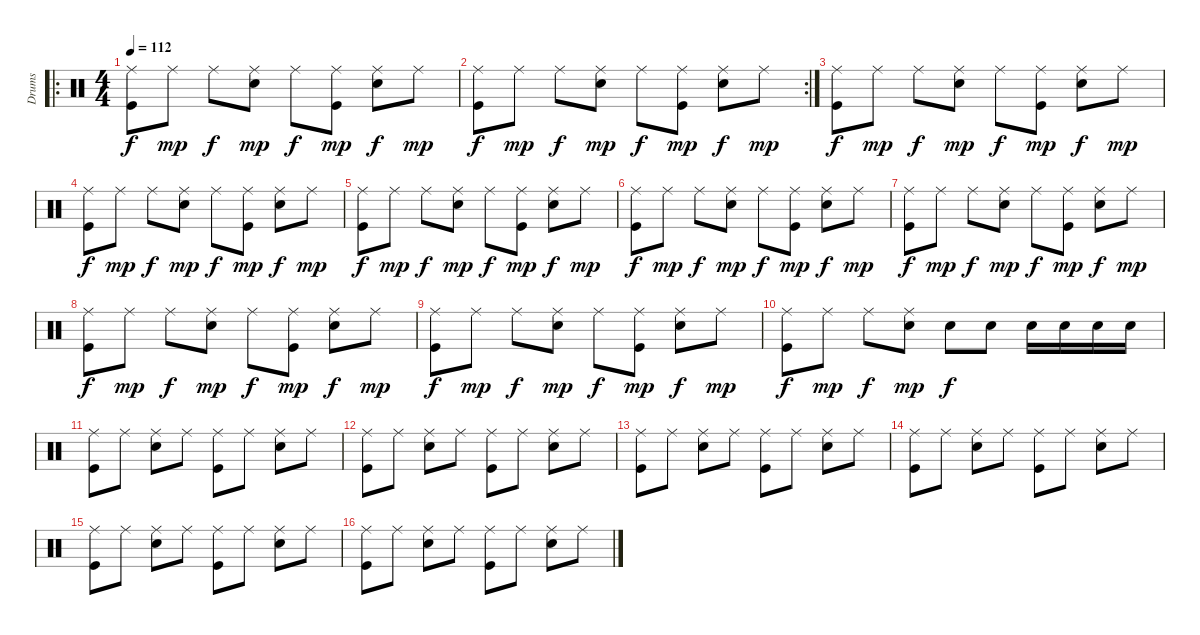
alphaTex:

\track ("Drums" "Drums") {instrument percussion}
\staff {score}
\articulation defaults
\ro
\ts (4 4)
\tempo 112
\clef neutral
\ks c
("Ride (middle)" "Kick (hit)").8{dy f} "Ride (middle)".8{dy mp} "Ride (middle)".8{dy f} ("Ride (middle)" "Snare (hit) 2").8{dy mp} "Ride (middle)".8{dy f} ("Ride (middle)" "Kick (hit)").8{dy mp} ("Ride (middle)" "Snare (hit) 2").8{dy f} "Ride (middle)".8{dy mp} |
\rc 2
("Ride (middle)" "Kick (hit)").8{dy f} "Ride (middle)".8{dy mp} "Ride (middle)".8{dy f} ("Ride (middle)" "Snare (hit) 2").8{dy mp} "Ride (middle)".8{dy f} ("Ride (middle)" "Kick (hit)").8{dy mp} ("Ride (middle)" "Snare (hit) 2").8{dy f} "Ride (middle)".8{dy mp} |
("Ride (middle)" "Kick (hit)").8{dy f} "Ride (middle)".8{dy mp} "Ride (middle)".8{dy f} ("Ride (middle)" "Snare (hit) 2").8{dy mp} "Ride (middle)".8{dy f} ("Ride (middle)" "Kick (hit)").8{dy mp} ("Ride (middle)" "Snare (hit) 2").8{dy f} "Ride (middle)".8{dy mp} |
("Ride (middle)" "Kick (hit)").8{dy f} "Ride (middle)".8{dy mp} "Ride (middle)".8{dy f} ("Ride (middle)" "Snare (hit) 2").8{dy mp} "Ride (middle)".8{dy f} ("Ride (middle)" "Kick (hit)").8{dy mp} ("Ride (middle)" "Snare (hit) 2").8{dy f} "Ride (middle)".8{dy mp} |
("Ride (middle)" "Kick (hit)").8{dy f} "Ride (middle)".8{dy mp} "Ride (middle)".8{dy f} ("Ride (middle)" "Snare (hit) 2").8{dy mp} "Ride (middle)".8{dy f} ("Ride (middle)" "Kick (hit)").8{dy mp} ("Ride (middle)" "Snare (hit) 2").8{dy f} "Ride (middle)".8{dy mp} |
("Ride (middle)" "Kick (hit)").8{dy f} "Ride (middle)".8{dy mp} "Ride (middle)".8{dy f} ("Ride (middle)" "Snare (hit) 2").8{dy mp} "Ride (middle)".8{dy f} ("Ride (middle)" "Kick (hit)").8{dy mp} ("Ride (middle)" "Snare (hit) 2").8{dy f} "Ride (middle)".8{dy mp} |
("Ride (middle)" "Kick (hit)").8{dy f} "Ride (middle)".8{dy mp} "Ride (middle)".8{dy f} ("Ride (middle)" "Snare (hit) 2").8{dy mp} "Ride (middle)".8{dy f} ("Ride (middle)" "Kick (hit)").8{dy mp} ("Ride (middle)" "Snare (hit) 2").8{dy f} "Ride (middle)".8{dy mp} |
("Ride (middle)" "Kick (hit)").8{dy f} "Ride (middle)".8{dy mp} "Ride (middle)".8{dy f} ("Ride (middle)" "Snare (hit) 2").8{dy mp} "Ride (middle)".8{dy f} ("Ride (middle)" "Kick (hit)").8{dy mp} ("Ride (middle)" "Snare (hit) 2").8{dy f} "Ride (middle)".8{dy mp} |
("Ride (middle)" "Kick (hit)").8{dy f} "Ride (middle)".8{dy mp} "Ride (middle)".8{dy f} ("Ride (middle)" "Snare (hit) 2").8{dy mp} "Ride (middle)".8{dy f} ("Ride (middle)" "Kick (hit)").8{dy mp} ("Ride (middle)" "Snare (hit) 2").8{dy f} "Ride (middle)".8{dy mp} |
("Ride (middle)" "Kick (hit)").8{dy f} "Ride (middle)".8{dy mp} "Ride (middle)".8{dy f} ("Ride (middle)" "Snare (hit) 2").8{dy mp} "Snare (hit) 2".8{dy f} "Snare (hit) 2".8 "Snare (hit) 2".16 "Snare (hit) 2".16 "Snare (hit) 2".16 "Snare (hit) 2".16 |
("Ride (middle)" "Kick (hit)").8 "Ride (middle)".8 ("Ride (middle)" "Snare (hit) 2").8 "Ride (middle)".8 ("Ride (middle)" "Kick (hit)").8 "Ride (middle)".8 ("Ride (middle)" "Snare (hit) 2").8 "Ride (middle)".8 |
("Ride (middle)" "Kick (hit)").8 "Ride (middle)".8 ("Ride (middle)" "Snare (hit) 2").8 "Ride (middle)".8 ("Ride (middle)" "Kick (hit)").8 "Ride (middle)".8 ("Ride (middle)" "Snare (hit) 2").8 "Ride (middle)".8 |
("Ride (middle)" "Kick (hit)").8 "Ride (middle)".8 ("Ride (middle)" "Snare (hit) 2").8 "Ride (middle)".8 ("Ride (middle)" "Kick (hit)").8 "Ride (middle)".8 ("Ride (middle)" "Snare (hit) 2").8 "Ride (middle)".8 |
("Ride (middle)" "Kick (hit)").8 "Ride (middle)".8 ("Ride (middle)" "Snare (hit) 2").8 "Ride (middle)".8 ("Ride (middle)" "Kick (hit)").8 "Ride (middle)".8 ("Ride (middle)" "Snare (hit) 2").8 "Ride (middle)".8 |
("Ride (middle)" "Kick (hit)").8 "Ride (middle)".8 ("Ride (middle)" "Snare (hit) 2").8 "Ride (middle)".8 ("Ride (middle)" "Kick (hit)").8 "Ride (middle)".8 ("Ride (middle)" "Snare (hit) 2").8 "Ride (middle)".8 |
("Ride (middle)" "Kick (hit)").8 "Ride (middle)".8 ("Ride (middle)" "Snare (hit) 2").8 "Ride (middle)".8 ("Ride (middle)" "Kick (hit)").8 "Ride (middle)".8 ("Ride (middle)" "Snare (hit) 2").8 "Ride (middle)".8
